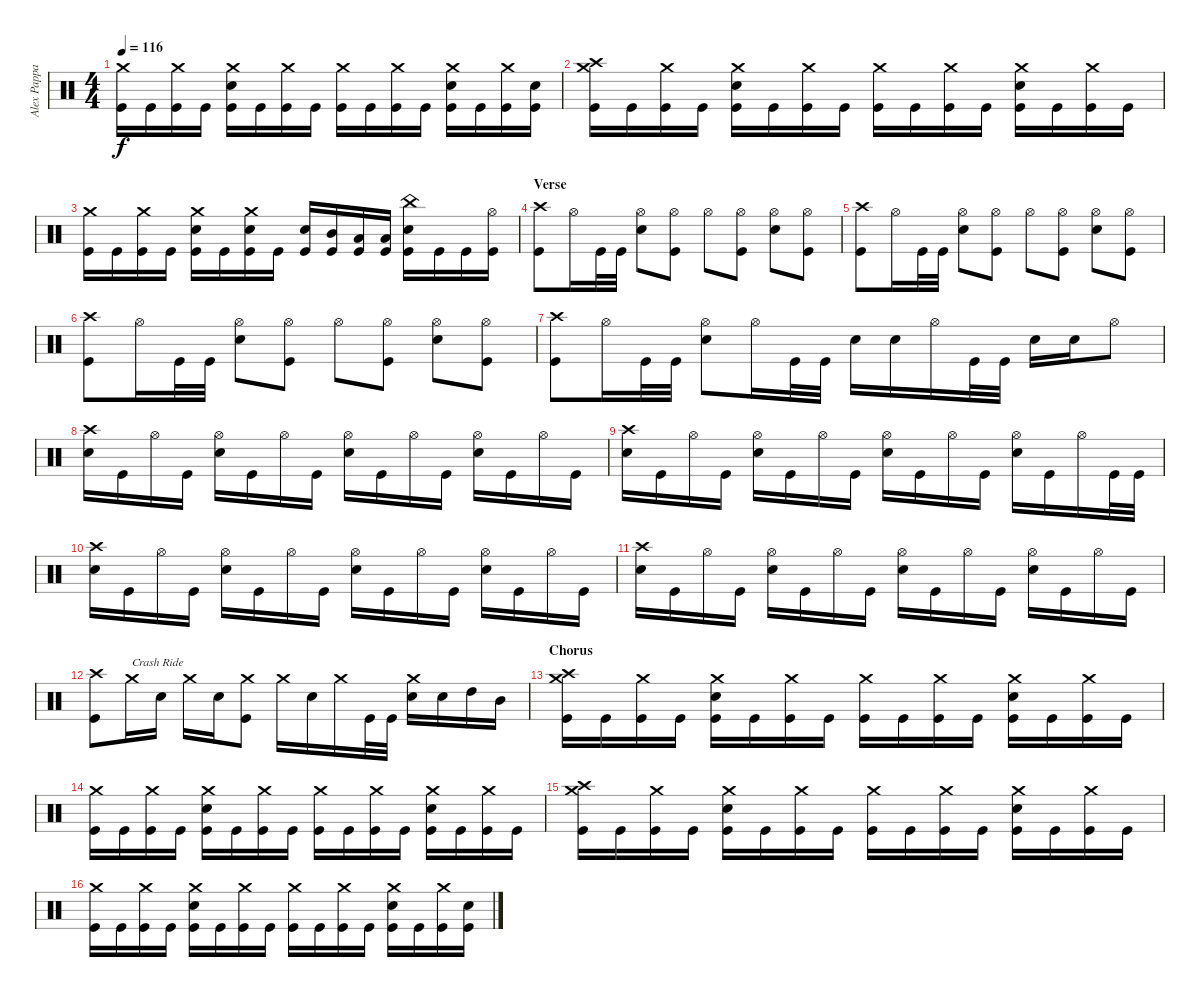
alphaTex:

\track ("Alex Pappas" "Alex Pappa") {instrument percussion}
\staff {score}
\articulation defaults
\ts (4 4)
\tempo 116
\clef neutral
\ks c
("Crash medium (hit)" "Kick (hit)").16{dy f} "Kick (hit)".16 ("Crash medium (hit)" "Kick (hit)").16 "Kick (hit)".16 ("Crash medium (hit)" "Electric Snare (hit)" "Kick (hit)").16 "Kick (hit)".16 ("Crash medium (hit)" "Kick (hit)").16 "Kick (hit)".16 ("Crash medium (hit)" "Kick (hit)").16 "Kick (hit)".16 ("Crash medium (hit)" "Kick (hit)").16 "Kick (hit)".16 ("Crash medium (hit)" "Electric Snare (hit)" "Kick (hit)").16 "Kick (hit)".16 ("Crash medium (hit)" "Kick (hit)").16 ("Electric Snare (hit)" "Kick (hit)").16 |
("Crash medium (hit)" "Crash high (hit)" "Kick (hit)").16 "Kick (hit)".16 ("Crash medium (hit)" "Kick (hit)").16 "Kick (hit)".16 ("Crash medium (hit)" "Electric Snare (hit)" "Kick (hit)").16 "Kick (hit)".16 ("Crash medium (hit)" "Kick (hit)").16 "Kick (hit)".16 ("Crash medium (hit)" "Kick (hit)").16 "Kick (hit)".16 ("Crash medium (hit)" "Kick (hit)").16 "Kick (hit)".16 ("Crash medium (hit)" "Electric Snare (hit)" "Kick (hit)").16 "Kick (hit)".16 ("Crash medium (hit)" "Kick (hit)").16 "Kick (hit)".16 |
("Crash medium (hit)" "Kick (hit)").16 "Kick (hit)".16 ("Crash medium (hit)" "Kick (hit)").16 "Kick (hit)".16 ("Crash medium (hit)" "Electric Snare (hit)" "Kick (hit)").16 "Kick (hit)".16 ("Crash medium (hit)" "Electric Snare (hit)" "Kick (hit)").16 "Kick (hit)".16 ("Electric Snare (hit)" "Kick (hit)").16 ("Mid Tom (hit)" "Kick (hit)").16 ("Low Tom (hit)" "Kick (hit)").16 ("Low Tom (hit)" "Kick (hit)").16 ("China (hit)" "Electric Snare (hit)" "Kick (hit)").16 "Kick (hit)".16 "Kick (hit)".16 ("Hi-Hat (open)" "Kick (hit)").16 |
\section ("" "Verse")
("Crash high (hit)" "Kick (hit)").8 "Hi-Hat (open)".16 "Kick (hit)".32 "Kick (hit)".32 ("Hi-Hat (open)" "Electric Snare (hit)").8 ("Hi-Hat (open)" "Kick (hit)").8 "Hi-Hat (open)".8 ("Hi-Hat (open)" "Kick (hit)").8 ("Hi-Hat (open)" "Electric Snare (hit)").8 ("Hi-Hat (open)" "Kick (hit)").8 |
("Crash high (hit)" "Kick (hit)").8 "Hi-Hat (open)".16 "Kick (hit)".32 "Kick (hit)".32 ("Hi-Hat (open)" "Electric Snare (hit)").8 ("Hi-Hat (open)" "Kick (hit)").8 "Hi-Hat (open)".8 ("Hi-Hat (open)" "Kick (hit)").8 ("Hi-Hat (open)" "Electric Snare (hit)").8 ("Hi-Hat (open)" "Kick (hit)").8 |
("Crash high (hit)" "Kick (hit)").8 "Hi-Hat (open)".16 "Kick (hit)".32 "Kick (hit)".32 ("Hi-Hat (open)" "Electric Snare (hit)").8 ("Hi-Hat (open)" "Kick (hit)").8 "Hi-Hat (open)".8 ("Hi-Hat (open)" "Kick (hit)").8 ("Hi-Hat (open)" "Electric Snare (hit)").8 ("Hi-Hat (open)" "Kick (hit)").8 |
("Crash high (hit)" "Kick (hit)").8 "Hi-Hat (open)".16 "Kick (hit)".32 "Kick (hit)".32 ("Hi-Hat (open)" "Electric Snare (hit)").8 "Hi-Hat (open)".16 "Kick (hit)".32 "Kick (hit)".32 "Electric Snare (hit)".16 "Electric Snare (hit)".16 "Hi-Hat (open)".16 "Kick (hit)".32 "Kick (hit)".32 "Electric Snare (hit)".16 "Electric Snare (hit)".16 "Hi-Hat (open)".8 |
("Crash high (hit)" "Electric Snare (hit)").16 "Kick (hit)".16 "Hi-Hat (open)".16 "Kick (hit)".16 ("Hi-Hat (open)" "Electric Snare (hit)").16 "Kick (hit)".16 "Hi-Hat (open)".16 "Kick (hit)".16 ("Hi-Hat (open)" "Electric Snare (hit)").16 "Kick (hit)".16 "Hi-Hat (open)".16 "Kick (hit)".16 ("Hi-Hat (open)" "Electric Snare (hit)").16 "Kick (hit)".16 "Hi-Hat (open)".16 "Kick (hit)".16 |
("Crash high (hit)" "Electric Snare (hit)").16 "Kick (hit)".16 "Hi-Hat (open)".16 "Kick (hit)".16 ("Hi-Hat (open)" "Electric Snare (hit)").16 "Kick (hit)".16 "Hi-Hat (open)".16 "Kick (hit)".16 ("Hi-Hat (open)" "Electric Snare (hit)").16 "Kick (hit)".16 "Hi-Hat (open)".16 "Kick (hit)".16 ("Hi-Hat (open)" "Electric Snare (hit)").16 "Kick (hit)".16 "Hi-Hat (open)".16 "Kick (hit)".32 "Kick (hit)".32 |
("Crash high (hit)" "Electric Snare (hit)").16 "Kick (hit)".16 "Hi-Hat (open)".16 "Kick (hit)".16 ("Hi-Hat (open)" "Electric Snare (hit)").16 "Kick (hit)".16 "Hi-Hat (open)".16 "Kick (hit)".16 ("Hi-Hat (open)" "Electric Snare (hit)").16 "Kick (hit)".16 "Hi-Hat (open)".16 "Kick (hit)".16 ("Hi-Hat (open)" "Electric Snare (hit)").16 "Kick (hit)".16 "Hi-Hat (open)".16 "Kick (hit)".16 |
("Crash high (hit)" "Electric Snare (hit)").16 "Kick (hit)".16 "Hi-Hat (open)".16 "Kick (hit)".16 ("Hi-Hat (open)" "Electric Snare (hit)").16 "Kick (hit)".16 "Hi-Hat (open)".16 "Kick (hit)".16 ("Hi-Hat (open)" "Electric Snare (hit)").16 "Kick (hit)".16 "Hi-Hat (open)".16 "Kick (hit)".16 ("Hi-Hat (open)" "Electric Snare (hit)").16 "Kick (hit)".16 "Hi-Hat (open)".16 "Kick (hit)".16 |
("Crash high (hit)" "Kick (hit)").8 "Crash medium (hit)".16{txt "Crash Ride"} "Electric Snare (hit)".16 "Crash medium (hit)".16 "Electric Snare (hit)".16 ("Crash medium (hit)" "Kick (hit)").8 "Crash medium (hit)".16 "Electric Snare (hit)".16 "Crash medium (hit)".16 "Kick (hit)".32 "Kick (hit)".32 ("Crash medium (hit)" "Electric Snare (hit)").16 "Electric Snare (hit)".16 "High Tom (hit)".16 "Mid Tom (hit)".16 |
\section ("" "Chorus")
("Crash high (hit)" "Crash medium (hit)" "Kick (hit)").16 "Kick (hit)".16 ("Crash medium (hit)" "Kick (hit)").16 "Kick (hit)".16 ("Crash medium (hit)" "Electric Snare (hit)" "Kick (hit)").16 "Kick (hit)".16 ("Crash medium (hit)" "Kick (hit)").16 "Kick (hit)".16 ("Crash medium (hit)" "Kick (hit)").16 "Kick (hit)".16 ("Crash medium (hit)" "Kick (hit)").16 "Kick (hit)".16 ("Crash medium (hit)" "Electric Snare (hit)" "Kick (hit)").16 "Kick (hit)".16 ("Crash medium (hit)" "Kick (hit)").16 "Kick (hit)".16 |
("Crash medium (hit)" "Kick (hit)").16 "Kick (hit)".16 ("Crash medium (hit)" "Kick (hit)").16 "Kick (hit)".16 ("Crash medium (hit)" "Electric Snare (hit)" "Kick (hit)").16 "Kick (hit)".16 ("Crash medium (hit)" "Kick (hit)").16 "Kick (hit)".16 ("Crash medium (hit)" "Kick (hit)").16 "Kick (hit)".16 ("Crash medium (hit)" "Kick (hit)").16 "Kick (hit)".16 ("Crash medium (hit)" "Electric Snare (hit)" "Kick (hit)").16 "Kick (hit)".16 ("Crash medium (hit)" "Kick (hit)").16 "Kick (hit)".16 |
("Crash medium (hit)" "Crash high (hit)" "Kick (hit)").16 "Kick (hit)".16 ("Crash medium (hit)" "Kick (hit)").16 "Kick (hit)".16 ("Crash medium (hit)" "Electric Snare (hit)" "Kick (hit)").16 "Kick (hit)".16 ("Crash medium (hit)" "Kick (hit)").16 "Kick (hit)".16 ("Crash medium (hit)" "Kick (hit)").16 "Kick (hit)".16 ("Crash medium (hit)" "Kick (hit)").16 "Kick (hit)".16 ("Crash medium (hit)" "Electric Snare (hit)" "Kick (hit)").16 "Kick (hit)".16 ("Crash medium (hit)" "Kick (hit)").16 "Kick (hit)".16 |
("Crash medium (hit)" "Kick (hit)").16 "Kick (hit)".16 ("Crash medium (hit)" "Kick (hit)").16 "Kick (hit)".16 ("Crash medium (hit)" "Electric Snare (hit)" "Kick (hit)").16 "Kick (hit)".16 ("Crash medium (hit)" "Kick (hit)").16 "Kick (hit)".16 ("Crash medium (hit)" "Kick (hit)").16 "Kick (hit)".16 ("Crash medium (hit)" "Kick (hit)").16 "Kick (hit)".16 ("Crash medium (hit)" "Electric Snare (hit)" "Kick (hit)").16 "Kick (hit)".16 ("Crash medium (hit)" "Kick (hit)").16 ("Electric Snare (hit)" "Kick (hit)").16
